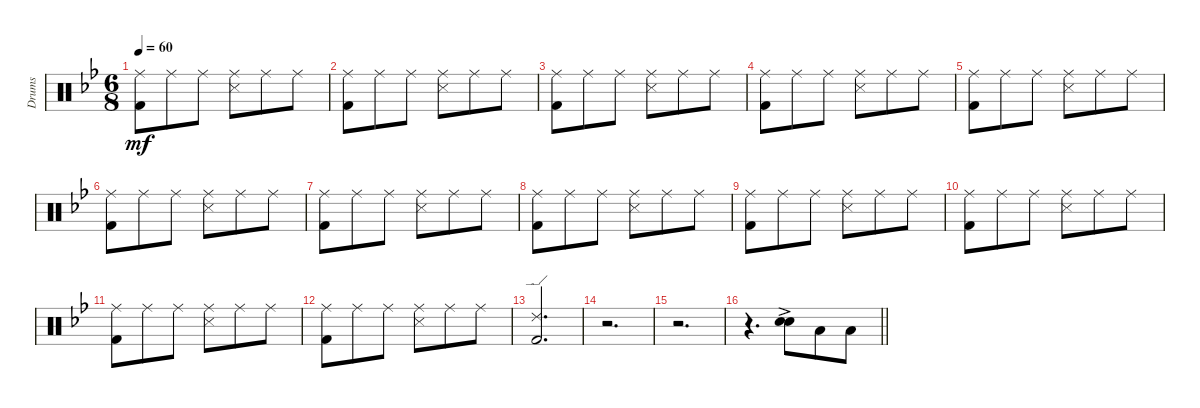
\track ("Drums" "Drums") {instrument percussion}
\staff {score}
\articulation defaults
\ts (6 8)
\tempo 60
\clef neutral
\ks bb
("Ride (middle)" "Kick (hit) 2").8{dy mf} "Ride (middle)".8 "Ride (middle)".8 ("Ride (middle)" "Snare (side stick) 3").8 "Ride (middle)".8 "Ride (middle)".8 |
("Ride (middle)" "Kick (hit) 2").8 "Ride (middle)".8 "Ride (middle)".8 ("Ride (middle)" "Snare (side stick) 3").8 "Ride (middle)".8 "Ride (middle)".8 |
("Ride (middle)" "Kick (hit) 2").8 "Ride (middle)".8 "Ride (middle)".8 ("Ride (middle)" "Snare (side stick) 3").8 "Ride (middle)".8 "Ride (middle)".8 |
("Ride (middle)" "Kick (hit) 2").8 "Ride (middle)".8 "Ride (middle)".8 ("Ride (middle)" "Snare (side stick) 3").8 "Ride (middle)".8 "Ride (middle)".8 |
("Ride (middle)" "Kick (hit) 2").8 "Ride (middle)".8 "Ride (middle)".8 ("Ride (middle)" "Snare (side stick) 3").8 "Ride (middle)".8 "Ride (middle)".8 |
("Ride (middle)" "Kick (hit) 2").8 "Ride (middle)".8 "Ride (middle)".8 ("Ride (middle)" "Snare (side stick) 3").8 "Ride (middle)".8 "Ride (middle)".8 |
("Ride (middle)" "Kick (hit) 2").8 "Ride (middle)".8 "Ride (middle)".8 ("Ride (middle)" "Snare (side stick) 3").8 "Ride (middle)".8 "Ride (middle)".8 |
("Ride (middle)" "Kick (hit) 2").8 "Ride (middle)".8 "Ride (middle)".8 ("Ride (middle)" "Snare (side stick) 3").8 "Ride (middle)".8 "Ride (middle)".8 |
("Ride (middle)" "Kick (hit) 2").8 "Ride (middle)".8 "Ride (middle)".8 ("Ride (middle)" "Snare (side stick) 3").8 "Ride (middle)".8 "Ride (middle)".8 |
("Ride (middle)" "Kick (hit) 2").8 "Ride (middle)".8 "Ride (middle)".8 ("Ride (middle)" "Snare (side stick) 3").8 "Ride (middle)".8 "Ride (middle)".8 |
("Ride (middle)" "Kick (hit) 2").8 "Ride (middle)".8 "Ride (middle)".8 ("Ride (middle)" "Snare (side stick) 3").8 "Ride (middle)".8 "Ride (middle)".8 |
("Ride (middle)" "Kick (hit) 2").8 "Ride (middle)".8 "Ride (middle)".8 ("Ride (middle)" "Snare (side stick) 3").8 "Ride (middle)".8 "Ride (middle)".8 |
("Ride (edge) 2" "Kick (hit) 2").2{d} |
r.2{d} |
r.2{d} |
\barLineRight lightlight
r.4{d} ("Electric Snare (hit)"{ac} "Electric Snare (hit)"{ac}).8{bd 60} "Low Tom (hit)".8 "Low Tom (hit)".8
